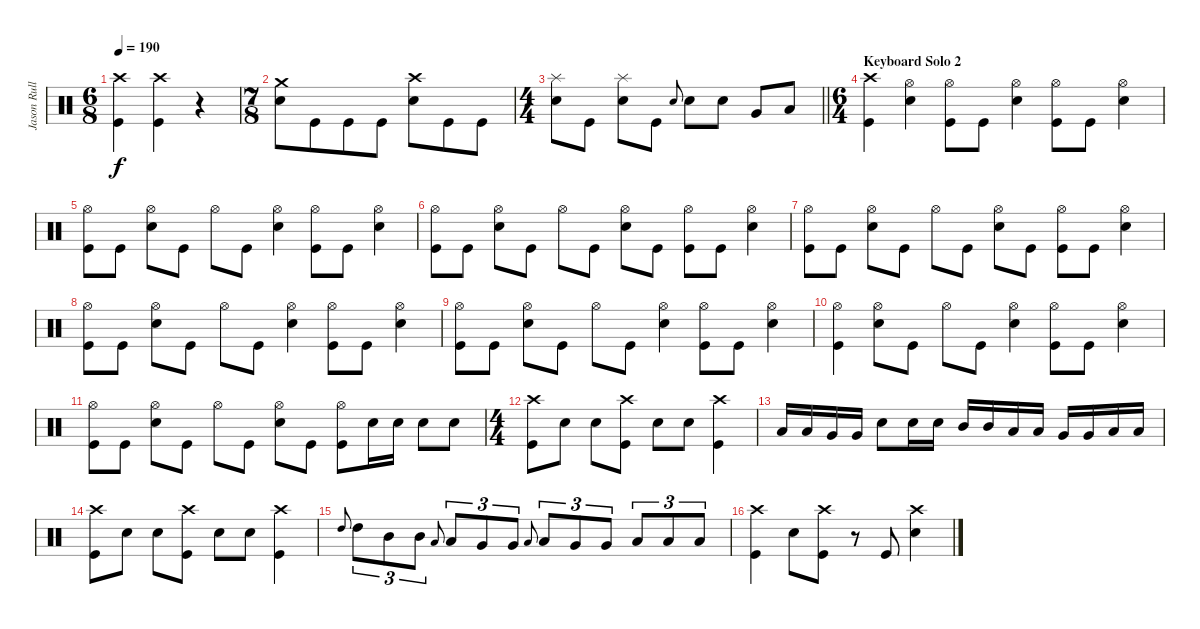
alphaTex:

\track ("Jason Rullo - Drums and Percussion" "Jason Rull") {instrument percussion}
\staff {score}
\articulation defaults
\ts (6 8)
\tempo 190
\clef neutral
\ks c
("Kick (hit)" "Crash high (hit)").4{dy f} ("Kick (hit)" "Crash high (hit)").4 r.4 |
\ts (7 8)
("Snare (hit) 2" "Crash medium (hit)").8 "Kick (hit)".8 "Kick (hit)".8 "Kick (hit)".8 ("Crash high (hit)" "Snare (hit) 2").8 "Kick (hit)".8 "Kick (hit)".8 |
\ts (4 4)
\barLineRight lightlight
("Snare (hit) 2" "Splash (hit)").8 "Kick (hit)".8 ("Snare (hit) 2" "Splash (hit)").8 "Kick (hit)".8 "Snare (hit) 2".8{gr onbeat} "Snare (hit) 2".8 "Snare (hit) 2".8 "Very Low Tom (hit)".8 "Low Floor Tom (hit)".8 |
\ts (6 4)
\section ("" "Keyboard Solo 2")
("Crash high (hit)" "Kick (hit)").4 ("Snare (hit) 2" "Hi-Hat (open)").4 ("Kick (hit)" "Hi-Hat (open)").8 "Kick (hit)".8 ("Snare (hit) 2" "Hi-Hat (open)").4 ("Kick (hit)" "Hi-Hat (open)").8 "Kick (hit)".8 ("Snare (hit) 2" "Hi-Hat (open)").4 |
("Kick (hit)" "Hi-Hat (open)").8 "Kick (hit)".8 ("Snare (hit) 2" "Hi-Hat (open)").8 "Kick (hit)".8 "Hi-Hat (open)".8 "Kick (hit)".8 ("Snare (hit) 2" "Hi-Hat (open)").4 ("Kick (hit)" "Hi-Hat (open)").8 "Kick (hit)".8 ("Snare (hit) 2" "Hi-Hat (open)").4 |
("Kick (hit)" "Hi-Hat (open)").8 "Kick (hit)".8 ("Snare (hit) 2" "Hi-Hat (open)").8 "Kick (hit)".8 "Hi-Hat (open)".8 "Kick (hit)".8 ("Snare (hit) 2" "Hi-Hat (open)").8 "Kick (hit)".8 ("Kick (hit)" "Hi-Hat (open)").8 "Kick (hit)".8 ("Snare (hit) 2" "Hi-Hat (open)").4 |
("Kick (hit)" "Hi-Hat (open)").8 "Kick (hit)".8 ("Snare (hit) 2" "Hi-Hat (open)").8 "Kick (hit)".8 "Hi-Hat (open)".8 "Kick (hit)".8 ("Snare (hit) 2" "Hi-Hat (open)").8 "Kick (hit)".8 ("Kick (hit)" "Hi-Hat (open)").8 "Kick (hit)".8 ("Snare (hit) 2" "Hi-Hat (open)").4 |
("Kick (hit)" "Hi-Hat (open)").8 "Kick (hit)".8 ("Snare (hit) 2" "Hi-Hat (open)").8 "Kick (hit)".8 "Hi-Hat (open)".8 "Kick (hit)".8 ("Snare (hit) 2" "Hi-Hat (open)").4 ("Kick (hit)" "Hi-Hat (open)").8 "Kick (hit)".8 ("Snare (hit) 2" "Hi-Hat (open)").4 |
("Kick (hit)" "Hi-Hat (open)").8 "Kick (hit)".8 ("Snare (hit) 2" "Hi-Hat (open)").8 "Kick (hit)".8 "Hi-Hat (open)".8 "Kick (hit)".8 ("Snare (hit) 2" "Hi-Hat (open)").4 ("Kick (hit)" "Hi-Hat (open)").8 "Kick (hit)".8 ("Snare (hit) 2" "Hi-Hat (open)").4 |
("Kick (hit)" "Hi-Hat (open)").4 ("Snare (hit) 2" "Hi-Hat (open)").8 "Kick (hit)".8 "Hi-Hat (open)".8 "Kick (hit)".8 ("Snare (hit) 2" "Hi-Hat (open)").4 ("Kick (hit)" "Hi-Hat (open)").8 "Kick (hit)".8 ("Snare (hit) 2" "Hi-Hat (open)").4 |
("Kick (hit)" "Hi-Hat (open)").8 "Kick (hit)".8 ("Snare (hit) 2" "Hi-Hat (open)").8 "Kick (hit)".8 "Hi-Hat (open)".8 "Kick (hit)".8 ("Snare (hit) 2" "Hi-Hat (open)").8 "Kick (hit)".8 ("Kick (hit)" "Hi-Hat (open)").8 "Snare (hit) 2".16 "Snare (hit) 2".16 "Snare (hit) 2".8 "Snare (hit) 2".8 |
\ts (4 4)
("Crash high (hit)" "Kick (hit)").8 "Snare (hit) 2".8 "Snare (hit) 2".8 ("Kick (hit)" "Crash high (hit)").8 "Snare (hit) 2".8 "Snare (hit) 2".8 ("Crash high (hit)" "Kick (hit)").4 |
"Low Tom (hit)".16 "Low Tom (hit)".16 "Very Low Tom (hit)".16 "Very Low Tom (hit)".16 "Snare (hit) 2".8 "Snare (hit) 2".16 "Snare (hit) 2".16 "Mid Tom (hit)".16 "Mid Tom (hit)".16 "Low Tom (hit)".16 "Low Tom (hit)".16 "Very Low Tom (hit)".16 "Very Low Tom (hit)".16 "Low Floor Tom (hit)".16 "Low Floor Tom (hit)".16 |
("Crash high (hit)" "Kick (hit)").8 "Snare (hit) 2".8 "Snare (hit) 2".8 ("Kick (hit)" "Crash high (hit)").8 "Snare (hit) 2".8 "Snare (hit) 2".8 ("Crash high (hit)" "Kick (hit)").4 |
"High Tom (hit)".8{gr onbeat} "High Tom (hit)".8{tu (3 2)} "Mid Tom (hit)".8{tu (3 2)} "Mid Tom (hit)".8{tu (3 2)} "Low Tom (hit)".8{gr onbeat} "Low Tom (hit)".8{tu (3 2)} "Very Low Tom (hit)".8{tu (3 2)} "Very Low Tom (hit)".8{tu (3 2)} "Low Tom (hit)".8{gr onbeat} "Low Tom (hit)".8{tu (3 2)} "Very Low Tom (hit)".8{tu (3 2)} "Very Low Tom (hit)".8{tu (3 2)} "Low Floor Tom (hit)".8{tu (3 2)} "Low Floor Tom (hit)".8{tu (3 2)} "Low Floor Tom (hit)".8{tu (3 2)} |
("Crash high (hit)" "Kick (hit)").4 "Snare (hit) 2".8 ("Kick (hit)" "Crash high (hit)").8 r.8 "Kick (hit)".8 ("Snare (hit) 2" "Crash high (hit)").4
